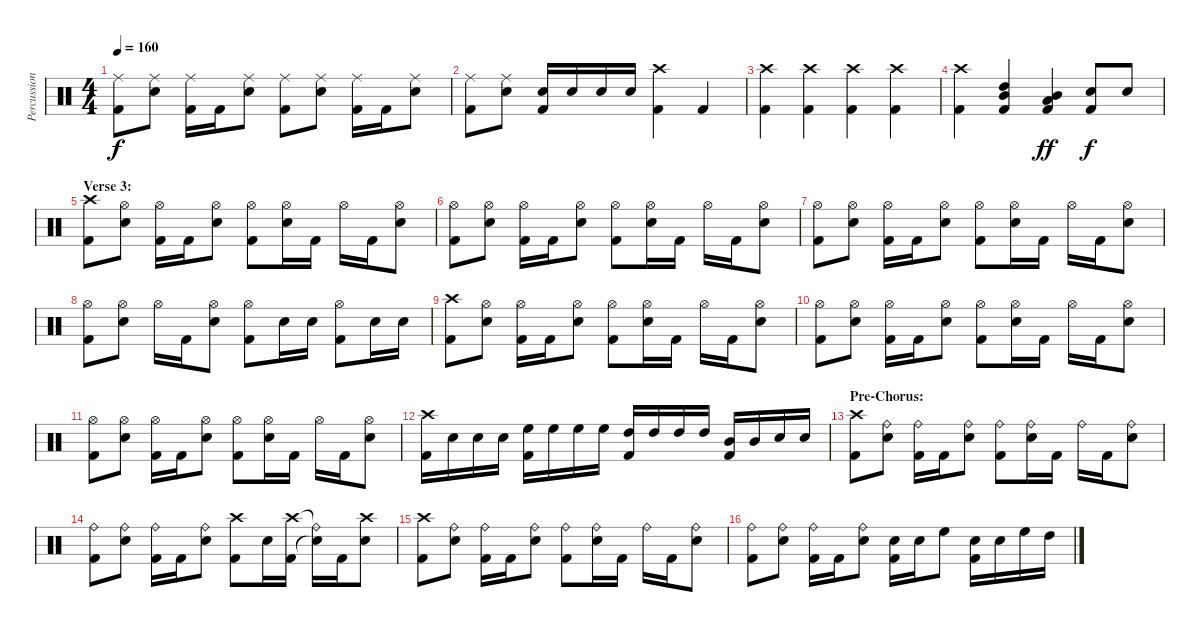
\track ("Percussion" "Percussion") {instrument percussion}
\staff {score}
\articulation defaults
\ts (4 4)
\tempo 160
\clef neutral
\ks c
("Ride (middle)" "Kick (hit) 2").8{dy f} ("Ride (middle)" "Electric Snare (hit)").8 ("Ride (middle)" "Kick (hit) 2").16 "Kick (hit) 2".16 ("Ride (middle)" "Electric Snare (hit)").8 ("Ride (middle)" "Kick (hit) 2").8 ("Ride (middle)" "Electric Snare (hit)").8 ("Ride (middle)" "Kick (hit) 2").16 "Kick (hit) 2".16 ("Ride (middle)" "Electric Snare (hit)").8 |
("Ride (middle)" "Kick (hit) 2").8 ("Ride (middle)" "Electric Snare (hit)").8 ("Electric Snare (hit)" "Kick (hit) 2").16 "Electric Snare (hit)".16 "Electric Snare (hit)".16 "Electric Snare (hit)".16 ("Crash high (hit)" "Kick (hit) 2").4 "Kick (hit) 2".4 |
("Crash high (hit)" "Kick (hit) 2").4 ("Crash high (hit)" "Kick (hit) 2").4 ("Crash high (hit)" "Kick (hit) 2").4 ("Crash high (hit)" "Kick (hit) 2").4 |
("Crash high (hit)" "Kick (hit) 2").4 ("High Tom (hit)" "Mid Tom (hit)" "Kick (hit) 2").4 ("Mid Tom (hit)" "Low Tom (hit)" "Kick (hit) 2").4{dy ff} ("Electric Snare (hit)" "Kick (hit) 2").8{dy f} "Electric Snare (hit)".8 |
\section ("" "Verse 3:")
("Crash high (hit)" "Kick (hit) 2").8 ("Hi-Hat (open)" "Electric Snare (hit)").8 ("Hi-Hat (open)" "Kick (hit) 2").16 "Kick (hit) 2".16 ("Hi-Hat (open)" "Electric Snare (hit)").8 ("Hi-Hat (open)" "Kick (hit) 2").8 ("Hi-Hat (open)" "Electric Snare (hit)").16 "Kick (hit) 2".16 "Hi-Hat (open)".16 "Kick (hit) 2".16 ("Hi-Hat (open)" "Electric Snare (hit)").8 |
("Hi-Hat (open)" "Kick (hit) 2").8 ("Hi-Hat (open)" "Electric Snare (hit)").8 ("Hi-Hat (open)" "Kick (hit) 2").16 "Kick (hit) 2".16 ("Hi-Hat (open)" "Electric Snare (hit)").8 ("Hi-Hat (open)" "Kick (hit) 2").8 ("Hi-Hat (open)" "Electric Snare (hit)").16 "Kick (hit) 2".16 "Hi-Hat (open)".16 "Kick (hit) 2".16 ("Hi-Hat (open)" "Electric Snare (hit)").8 |
("Hi-Hat (open)" "Kick (hit) 2").8 ("Hi-Hat (open)" "Electric Snare (hit)").8 ("Hi-Hat (open)" "Kick (hit) 2").16 "Kick (hit) 2".16 ("Hi-Hat (open)" "Electric Snare (hit)").8 ("Hi-Hat (open)" "Kick (hit) 2").8 ("Hi-Hat (open)" "Electric Snare (hit)").16 "Kick (hit) 2".16 "Hi-Hat (open)".16 "Kick (hit) 2".16 ("Hi-Hat (open)" "Electric Snare (hit)").8 |
("Hi-Hat (open)" "Kick (hit) 2").8 ("Hi-Hat (open)" "Electric Snare (hit)").8 "Hi-Hat (open)".16 "Kick (hit) 2".16 ("Hi-Hat (open)" "Electric Snare (hit)").8 ("Hi-Hat (open)" "Kick (hit) 2").8 "Electric Snare (hit)".16 "Electric Snare (hit)".16 ("Hi-Hat (open)" "Kick (hit) 2").8 "Electric Snare (hit)".16 "Electric Snare (hit)".16 |
("Crash high (hit)" "Kick (hit) 2").8 ("Hi-Hat (open)" "Electric Snare (hit)").8 ("Hi-Hat (open)" "Kick (hit) 2").16 "Kick (hit) 2".16 ("Hi-Hat (open)" "Electric Snare (hit)").8 ("Hi-Hat (open)" "Kick (hit) 2").8 ("Hi-Hat (open)" "Electric Snare (hit)").16 "Kick (hit) 2".16 "Hi-Hat (open)".16 "Kick (hit) 2".16 ("Hi-Hat (open)" "Electric Snare (hit)").8 |
("Hi-Hat (open)" "Kick (hit) 2").8 ("Hi-Hat (open)" "Electric Snare (hit)").8 ("Hi-Hat (open)" "Kick (hit) 2").16 "Kick (hit) 2".16 ("Hi-Hat (open)" "Electric Snare (hit)").8 ("Hi-Hat (open)" "Kick (hit) 2").8 ("Hi-Hat (open)" "Electric Snare (hit)").16 "Kick (hit) 2".16 "Hi-Hat (open)".16 "Kick (hit) 2".16 ("Hi-Hat (open)" "Electric Snare (hit)").8 |
("Hi-Hat (open)" "Kick (hit) 2").8 ("Hi-Hat (open)" "Electric Snare (hit)").8 ("Hi-Hat (open)" "Kick (hit) 2").16 "Kick (hit) 2".16 ("Hi-Hat (open)" "Electric Snare (hit)").8 ("Hi-Hat (open)" "Kick (hit) 2").8 ("Hi-Hat (open)" "Electric Snare (hit)").16 "Kick (hit) 2".16 "Hi-Hat (open)".16 "Kick (hit) 2".16 ("Hi-Hat (open)" "Electric Snare (hit)").8 |
("Crash high (hit)" "Kick (hit) 2").16 "Electric Snare (hit)".16 "Electric Snare (hit)".16 "Electric Snare (hit)".16 ("High Floor Tom (hit)" "Kick (hit) 2").16 "High Floor Tom (hit)".16 "High Floor Tom (hit)".16 "High Floor Tom (hit)".16 ("High Tom (hit)" "Kick (hit) 2").16 "High Tom (hit)".16 "High Tom (hit)".16 "High Tom (hit)".16 ("Mid Tom (hit)" "Kick (hit) 2").16 "Mid Tom (hit)".16 "Electric Snare (hit)".16 "Electric Snare (hit)".16 |
\section ("" "Pre-Chorus:")
("Crash high (hit)" "Kick (hit) 2").8 ("Ride (bell)" "Electric Snare (hit)").8 ("Ride (bell)" "Kick (hit) 2").16 "Kick (hit) 2".16 ("Ride (bell)" "Electric Snare (hit)").8 ("Ride (bell)" "Kick (hit) 2").8 ("Ride (bell)" "Electric Snare (hit)").16 "Kick (hit) 2".16 "Ride (bell)".16 "Kick (hit) 2".16 ("Ride (bell)" "Electric Snare (hit)").8 |
("Ride (bell)" "Kick (hit) 2").8 ("Ride (bell)" "Electric Snare (hit)").8 ("Ride (bell)" "Kick (hit) 2").16 "Kick (hit) 2".16 ("Ride (bell)" "Electric Snare (hit)").8 ("Crash high (hit)" "Kick (hit) 2").8 "Electric Snare (hit)".16 ("Crash high (hit)" "Kick (hit) 2").16 ("Ride (bell)"{t} "Snare (hit)"{t}).16 "Kick (hit) 2".16 ("Crash high (hit)" "Electric Snare (hit)").8 |
("Crash high (hit)" "Kick (hit) 2").8 ("Ride (bell)" "Electric Snare (hit)").8 ("Ride (bell)" "Kick (hit) 2").16 "Kick (hit) 2".16 ("Ride (bell)" "Electric Snare (hit)").8 ("Ride (bell)" "Kick (hit) 2").8 ("Ride (bell)" "Electric Snare (hit)").16 "Kick (hit) 2".16 "Ride (bell)".16 "Kick (hit) 2".16 ("Ride (bell)" "Electric Snare (hit)").8 |
("Ride (bell)" "Kick (hit) 2").8 ("Ride (bell)" "Electric Snare (hit)").8 ("Ride (bell)" "Kick (hit) 2").16 "Kick (hit) 2".16 ("Ride (bell)" "Electric Snare (hit)").8 ("Electric Snare (hit)" "Kick (hit) 2").16 "Electric Snare (hit)".16 "High Floor Tom (hit)".8 ("Electric Snare (hit)" "Kick (hit) 2").16 "Electric Snare (hit)".16 "High Floor Tom (hit)".16 "High Tom (hit)".16
